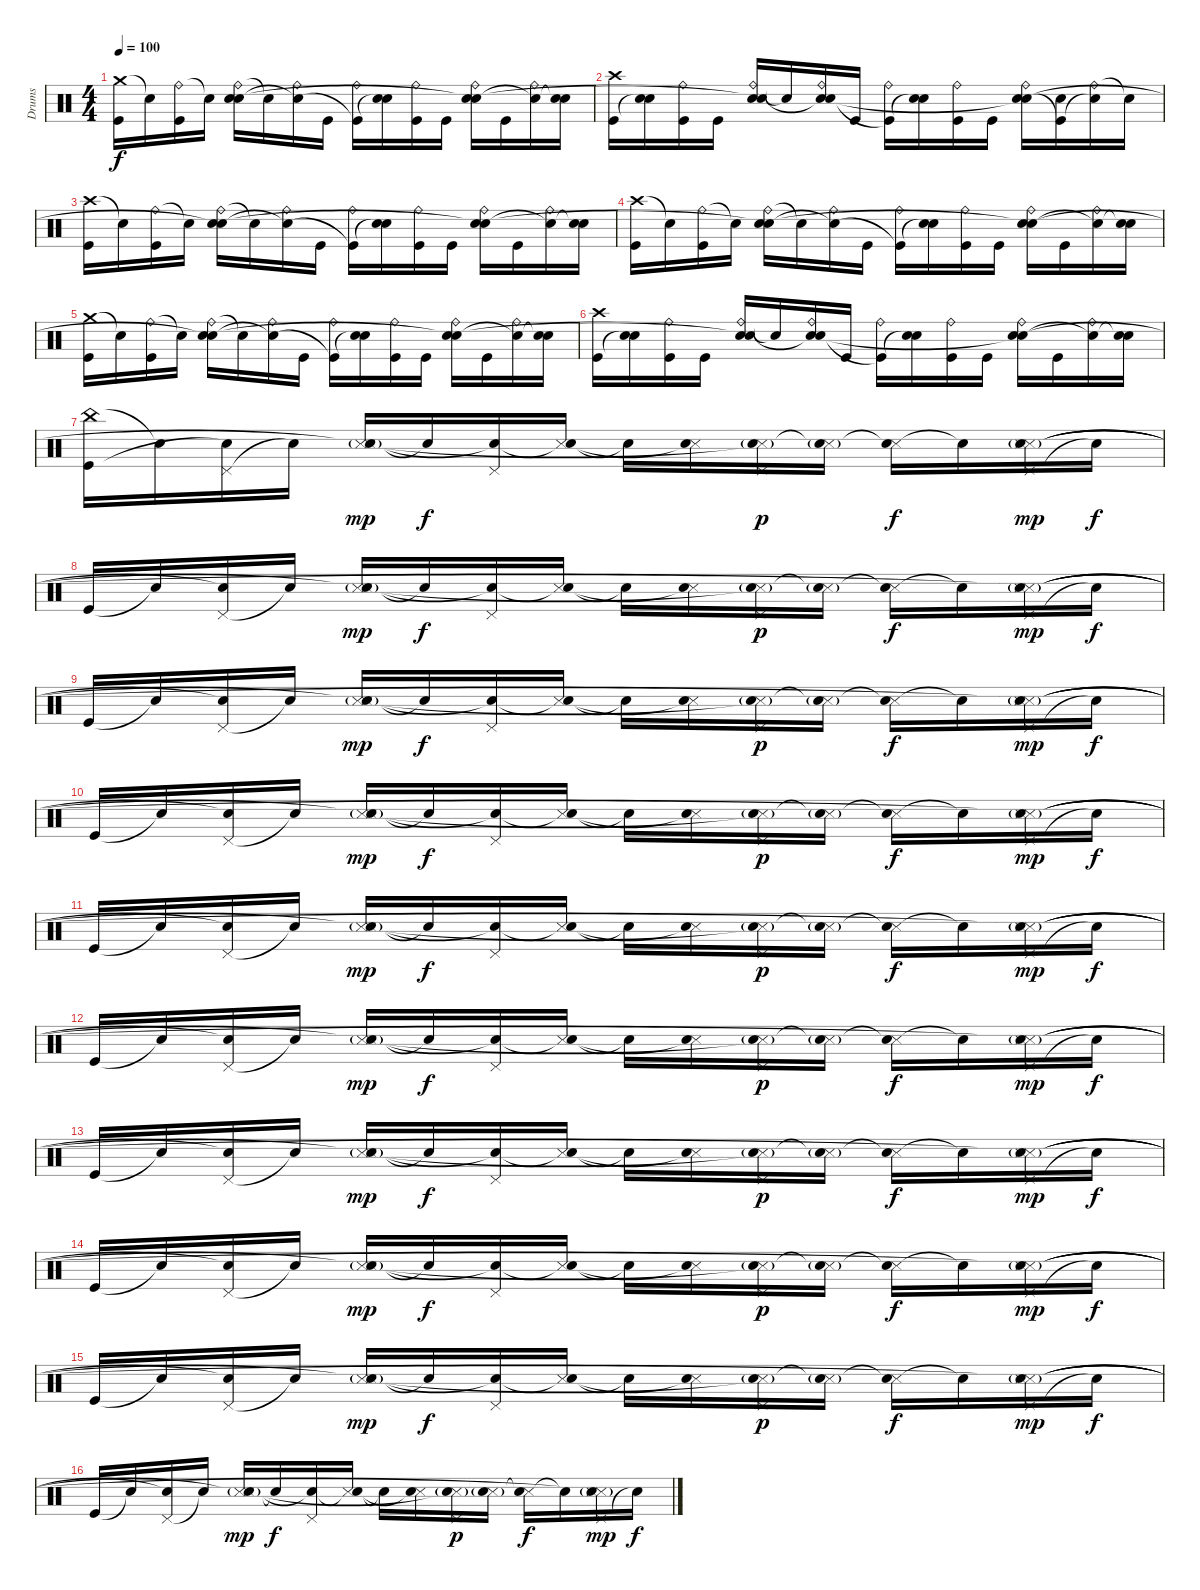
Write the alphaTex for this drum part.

\track ("Drums" "Drums") {instrument percussion}
\staff {score}
\articulation defaults
\ts (4 4)
\tempo 100
\clef neutral
\ks c
("Crash medium (hit)" "Kick (hit)").16{dy f} "Snare (hit)"{t}.16 ("Ride (bell)" "Kick (hit)").16 "Snare (hit)"{t}.16 ("Ride (bell)" "Electric Snare (hit)" "Snare (hit)"{t}).16 "Snare (hit)"{t}.16 ("Ride (bell)" "Snare (hit)"{t}).16 "Kick (hit)".16 ("Ride (bell)" "Kick (hit)"{t}).16 ("Electric Snare (hit)" "Snare (hit)"{t}).16 ("Ride (bell)" "Kick (hit)").16 "Kick (hit)".16 ("Ride (bell)" "Electric Snare (hit)" "Snare (hit)"{t}).16 "Kick (hit)".16 ("Ride (bell)" "Snare (hit)"{t}).16 ("Electric Snare (hit)" "Snare (hit)"{t}).16 |
("Crash high (hit)" "Kick (hit)").16 ("Electric Snare (hit)" "Snare (hit)"{t}).16 ("Ride (bell)" "Kick (hit)").16 "Kick (hit)".16 ("Ride (bell)" "Electric Snare (hit)" "Snare (hit)"{t}).16 "Snare (hit)"{t}.16 ("Ride (bell)" "Electric Snare (hit)" "Snare (hit)"{t}).16 "Kick (hit)".16 ("Ride (bell)" "Kick (hit)"{t}).16 ("Electric Snare (hit)" "Snare (hit)"{t}).16 ("Ride (bell)" "Kick (hit)").16 "Kick (hit)".16 ("Ride (bell)" "Electric Snare (hit)" "Snare (hit)"{t}).16 ("Electric Snare (hit)" "Kick (hit)"{t}).16 ("Ride (bell)" "Snare (hit)"{t}).16 "Snare (hit)"{t}.16 |
("Crash high (hit)" "Kick (hit)").16 "Snare (hit)"{t}.16 ("Ride (bell)" "Kick (hit)").16 "Snare (hit)"{t}.16 ("Ride (bell)" "Electric Snare (hit)" "Snare (hit)"{t}).16 "Snare (hit)"{t}.16 ("Ride (bell)" "Snare (hit)"{t}).16 "Kick (hit)".16 ("Ride (bell)" "Kick (hit)"{t}).16 ("Electric Snare (hit)" "Snare (hit)"{t}).16 ("Ride (bell)" "Kick (hit)").16 "Kick (hit)".16 ("Ride (bell)" "Electric Snare (hit)" "Snare (hit)"{t}).16 "Kick (hit)".16 ("Ride (bell)" "Snare (hit)"{t}).16 ("Electric Snare (hit)" "Snare (hit)"{t}).16 |
("Crash high (hit)" "Kick (hit)").16 "Snare (hit)"{t}.16 ("Ride (bell)" "Kick (hit)").16 "Snare (hit)"{t}.16 ("Ride (bell)" "Electric Snare (hit)" "Snare (hit)"{t}).16 "Snare (hit)"{t}.16 ("Ride (bell)" "Snare (hit)"{t}).16 "Kick (hit)".16 ("Ride (bell)" "Kick (hit)"{t}).16 ("Electric Snare (hit)" "Snare (hit)"{t}).16 ("Ride (bell)" "Kick (hit)").16 "Kick (hit)".16 ("Ride (bell)" "Electric Snare (hit)" "Snare (hit)"{t}).16 "Kick (hit)".16 ("Ride (bell)" "Snare (hit)"{t}).16 ("Electric Snare (hit)" "Snare (hit)"{t}).16 |
("Crash medium (hit)" "Kick (hit)").16 "Snare (hit)"{t}.16 ("Ride (bell)" "Kick (hit)").16 "Snare (hit)"{t}.16 ("Ride (bell)" "Electric Snare (hit)" "Snare (hit)"{t}).16 "Snare (hit)"{t}.16 ("Ride (bell)" "Snare (hit)"{t}).16 "Kick (hit)".16 ("Ride (bell)" "Kick (hit)"{t}).16 ("Electric Snare (hit)" "Snare (hit)"{t}).16 ("Ride (bell)" "Kick (hit)").16 "Kick (hit)".16 ("Ride (bell)" "Electric Snare (hit)" "Snare (hit)"{t}).16 "Kick (hit)".16 ("Ride (bell)" "Snare (hit)"{t}).16 ("Electric Snare (hit)" "Snare (hit)"{t}).16 |
("Crash high (hit)" "Kick (hit)").16 ("Electric Snare (hit)" "Snare (hit)"{t}).16 ("Ride (bell)" "Kick (hit)").16 "Kick (hit)".16 ("Ride (bell)" "Electric Snare (hit)" "Snare (hit)"{t}).16 "Snare (hit)"{t}.16 ("Ride (bell)" "Electric Snare (hit)" "Snare (hit)"{t}).16 "Kick (hit)".16 ("Ride (bell)" "Kick (hit)"{t}).16 ("Electric Snare (hit)" "Snare (hit)"{t}).16 ("Ride (bell)" "Kick (hit)").16 "Kick (hit)".16 ("Ride (bell)" "Electric Snare (hit)" "Snare (hit)"{t}).16 "Kick (hit)".16 ("Ride (bell)" "Snare (hit)"{t}).16 ("Electric Snare (hit)" "Snare (hit)"{t}).16 |
("China (hit)" "Kick (hit)").16{volume 9} "Snare (hit)"{t}.16 ("Pedal Hi-Hat (hit)" "Snare (hit)"{t}).16 "Snare (hit)"{t}.16 ("Snare (side stick) 3"{g} "Snare (side stick) 3" "Snare (hit)"{t}).16{bd 480 dy mp} "Snare (hit)"{t}.16{dy f} ("Pedal Hi-Hat (hit)" "Snare (hit)"{t}).16 ("Snare (side stick) 3" "Snare (hit)"{t}).16 "Snare (hit)"{t}.16 ("Snare (side stick) 3" "Snare (hit)"{t}).16 ("Pedal Hi-Hat (hit)" "Snare (side stick) 3"{g} "Snare (hit)"{t}).16{dy p} ("Snare (side stick) 3"{g} "Snare (hit)"{t}).16 ("Snare (side stick) 3" "Snare (hit)"{t}).16{dy f} "Snare (hit)"{t}.16 ("Pedal Hi-Hat (hit)" "Snare (side stick) 3"{g} "Snare (side stick) 3" "Snare (hit)").16{bd 480 dy mp} "Snare (hit)"{t}.16{dy f} |
"Kick (hit)".16 "Snare (hit)"{t}.16 ("Pedal Hi-Hat (hit)" "Snare (hit)"{t}).16 "Snare (hit)"{t}.16 ("Snare (side stick) 3"{g} "Snare (side stick) 3" "Snare (hit)"{t}).16{bd 480 dy mp} "Snare (hit)"{t}.16{dy f} ("Pedal Hi-Hat (hit)" "Snare (hit)"{t}).16 ("Snare (side stick) 3" "Snare (hit)"{t}).16 "Snare (hit)"{t}.16 ("Snare (side stick) 3" "Snare (hit)"{t}).16 ("Pedal Hi-Hat (hit)" "Snare (side stick) 3"{g} "Snare (hit)"{t}).16{dy p} ("Snare (side stick) 3"{g} "Snare (hit)"{t}).16 ("Snare (side stick) 3" "Snare (hit)"{t}).16{dy f} "Snare (hit)"{t}.16 ("Pedal Hi-Hat (hit)" "Snare (side stick) 3"{g} "Snare (side stick) 3" "Snare (hit)"{t}).16{bd 480 dy mp} "Snare (hit)"{t}.16{dy f} |
"Kick (hit)".16 "Snare (hit)"{t}.16 ("Pedal Hi-Hat (hit)" "Snare (hit)"{t}).16 "Snare (hit)"{t}.16 ("Snare (side stick) 3"{g} "Snare (side stick) 3" "Snare (hit)"{t}).16{bd 480 dy mp} "Snare (hit)"{t}.16{dy f} ("Pedal Hi-Hat (hit)" "Snare (hit)"{t}).16 ("Snare (side stick) 3" "Snare (hit)"{t}).16 "Snare (hit)"{t}.16 ("Snare (side stick) 3" "Snare (hit)"{t}).16 ("Pedal Hi-Hat (hit)" "Snare (side stick) 3"{g} "Snare (hit)"{t}).16{dy p} ("Snare (side stick) 3"{g} "Snare (hit)"{t}).16 ("Snare (side stick) 3" "Snare (hit)"{t}).16{dy f} "Snare (hit)"{t}.16 ("Pedal Hi-Hat (hit)" "Snare (side stick) 3"{g} "Snare (side stick) 3" "Snare (hit)"{t}).16{bd 480 dy mp} "Snare (hit)"{t}.16{dy f} |
"Kick (hit)".16 "Snare (hit)"{t}.16 ("Pedal Hi-Hat (hit)" "Snare (hit)"{t}).16 "Snare (hit)"{t}.16 ("Snare (side stick) 3"{g} "Snare (side stick) 3" "Snare (hit)"{t}).16{bd 480 dy mp} "Snare (hit)"{t}.16{dy f} ("Pedal Hi-Hat (hit)" "Snare (hit)"{t}).16 ("Snare (side stick) 3" "Snare (hit)"{t}).16 "Snare (hit)"{t}.16 ("Snare (side stick) 3" "Snare (hit)"{t}).16 ("Pedal Hi-Hat (hit)" "Snare (side stick) 3"{g} "Snare (hit)"{t}).16{dy p} ("Snare (side stick) 3"{g} "Snare (hit)"{t}).16 ("Snare (side stick) 3" "Snare (hit)"{t}).16{dy f} "Snare (hit)"{t}.16 ("Pedal Hi-Hat (hit)" "Snare (side stick) 3"{g} "Snare (side stick) 3" "Snare (hit)"{t}).16{bd 480 dy mp} "Snare (hit)"{t}.16{dy f} |
"Kick (hit)".16 "Snare (hit)"{t}.16 ("Pedal Hi-Hat (hit)" "Snare (hit)"{t}).16 "Snare (hit)"{t}.16 ("Snare (side stick) 3"{g} "Snare (side stick) 3" "Snare (hit)"{t}).16{bd 480 dy mp} "Snare (hit)"{t}.16{dy f} ("Pedal Hi-Hat (hit)" "Snare (hit)"{t}).16 ("Snare (side stick) 3" "Snare (hit)"{t}).16 "Snare (hit)"{t}.16 ("Snare (side stick) 3" "Snare (hit)"{t}).16 ("Pedal Hi-Hat (hit)" "Snare (side stick) 3"{g} "Snare (hit)"{t}).16{dy p} ("Snare (side stick) 3"{g} "Snare (hit)"{t}).16 ("Snare (side stick) 3" "Snare (hit)"{t}).16{dy f} "Snare (hit)"{t}.16 ("Pedal Hi-Hat (hit)" "Snare (side stick) 3"{g} "Snare (side stick) 3" "Snare (hit)"{t}).16{bd 480 dy mp} "Snare (hit)"{t}.16{dy f} |
"Kick (hit)".16 "Snare (hit)"{t}.16 ("Pedal Hi-Hat (hit)" "Snare (hit)"{t}).16 "Snare (hit)"{t}.16 ("Snare (side stick) 3"{g} "Snare (side stick) 3" "Snare (hit)"{t}).16{bd 480 dy mp} "Snare (hit)"{t}.16{dy f} ("Pedal Hi-Hat (hit)" "Snare (hit)"{t}).16 ("Snare (side stick) 3" "Snare (hit)"{t}).16 "Snare (hit)"{t}.16 ("Snare (side stick) 3" "Snare (hit)"{t}).16 ("Pedal Hi-Hat (hit)" "Snare (side stick) 3"{g} "Snare (hit)"{t}).16{dy p} ("Snare (side stick) 3"{g} "Snare (hit)"{t}).16 ("Snare (side stick) 3" "Snare (hit)"{t}).16{dy f} "Snare (hit)"{t}.16 ("Pedal Hi-Hat (hit)" "Snare (side stick) 3"{g} "Snare (side stick) 3" "Snare (hit)"{t}).16{bd 480 dy mp} "Snare (hit)"{t}.16{dy f} |
"Kick (hit)".16 "Snare (hit)"{t}.16 ("Pedal Hi-Hat (hit)" "Snare (hit)"{t}).16 "Snare (hit)"{t}.16 ("Snare (side stick) 3"{g} "Snare (side stick) 3" "Snare (hit)"{t}).16{bd 480 dy mp} "Snare (hit)"{t}.16{dy f} ("Pedal Hi-Hat (hit)" "Snare (hit)"{t}).16 ("Snare (side stick) 3" "Snare (hit)"{t}).16 "Snare (hit)"{t}.16 ("Snare (side stick) 3" "Snare (hit)"{t}).16 ("Pedal Hi-Hat (hit)" "Snare (side stick) 3"{g} "Snare (hit)"{t}).16{dy p} ("Snare (side stick) 3"{g} "Snare (hit)"{t}).16 ("Snare (side stick) 3" "Snare (hit)"{t}).16{dy f} "Snare (hit)"{t}.16 ("Pedal Hi-Hat (hit)" "Snare (side stick) 3"{g} "Snare (side stick) 3" "Snare (hit)"{t}).16{bd 480 dy mp} "Snare (hit)"{t}.16{dy f} |
"Kick (hit)".16 "Snare (hit)"{t}.16 ("Pedal Hi-Hat (hit)" "Snare (hit)"{t}).16 "Snare (hit)"{t}.16 ("Snare (side stick) 3"{g} "Snare (side stick) 3" "Snare (hit)"{t}).16{bd 480 dy mp} "Snare (hit)"{t}.16{dy f} ("Pedal Hi-Hat (hit)" "Snare (hit)"{t}).16 ("Snare (side stick) 3" "Snare (hit)"{t}).16 "Snare (hit)"{t}.16 ("Snare (side stick) 3" "Snare (hit)"{t}).16 ("Pedal Hi-Hat (hit)" "Snare (side stick) 3"{g} "Snare (hit)"{t}).16{dy p} ("Snare (side stick) 3"{g} "Snare (hit)"{t}).16 ("Snare (side stick) 3" "Snare (hit)"{t}).16{dy f} "Snare (hit)"{t}.16 ("Pedal Hi-Hat (hit)" "Snare (side stick) 3"{g} "Snare (side stick) 3" "Snare (hit)"{t}).16{bd 480 dy mp} "Snare (hit)"{t}.16{dy f} |
"Kick (hit)".16 "Snare (hit)"{t}.16 ("Pedal Hi-Hat (hit)" "Snare (hit)"{t}).16 "Snare (hit)"{t}.16 ("Snare (side stick) 3"{g} "Snare (side stick) 3" "Snare (hit)"{t}).16{bd 480 dy mp} "Snare (hit)"{t}.16{dy f} ("Pedal Hi-Hat (hit)" "Snare (hit)"{t}).16 ("Snare (side stick) 3" "Snare (hit)"{t}).16 "Snare (hit)"{t}.16 ("Snare (side stick) 3" "Snare (hit)"{t}).16 ("Pedal Hi-Hat (hit)" "Snare (side stick) 3"{g} "Snare (hit)"{t}).16{dy p} ("Snare (side stick) 3"{g} "Snare (hit)"{t}).16 ("Snare (side stick) 3" "Snare (hit)"{t}).16{dy f} "Snare (hit)"{t}.16 ("Pedal Hi-Hat (hit)" "Snare (side stick) 3"{g} "Snare (side stick) 3" "Snare (hit)"{t}).16{bd 480 dy mp} "Snare (hit)"{t}.16{dy f} |
"Kick (hit)".16 "Snare (hit)"{t}.16 ("Pedal Hi-Hat (hit)" "Snare (hit)"{t}).16 "Snare (hit)"{t}.16 ("Snare (side stick) 3"{g} "Snare (side stick) 3" "Snare (hit)"{t}).16{bd 480 dy mp} "Snare (hit)"{t}.16{dy f} ("Pedal Hi-Hat (hit)" "Snare (hit)"{t}).16 ("Snare (side stick) 3" "Snare (hit)"{t}).16 "Snare (hit)"{t}.16 ("Snare (side stick) 3" "Snare (hit)"{t}).16 ("Pedal Hi-Hat (hit)" "Snare (side stick) 3"{g} "Snare (hit)"{t}).16{dy p} ("Snare (side stick) 3"{g} "Snare (hit)"{t}).16 ("Snare (side stick) 3" "Snare (hit)"{t}).16{dy f} "Snare (hit)"{t}.16 ("Pedal Hi-Hat (hit)" "Snare (side stick) 3"{g} "Snare (side stick) 3" "Snare (hit)"{t}).16{bd 480 dy mp} "Snare (hit)"{t}.16{dy f}
